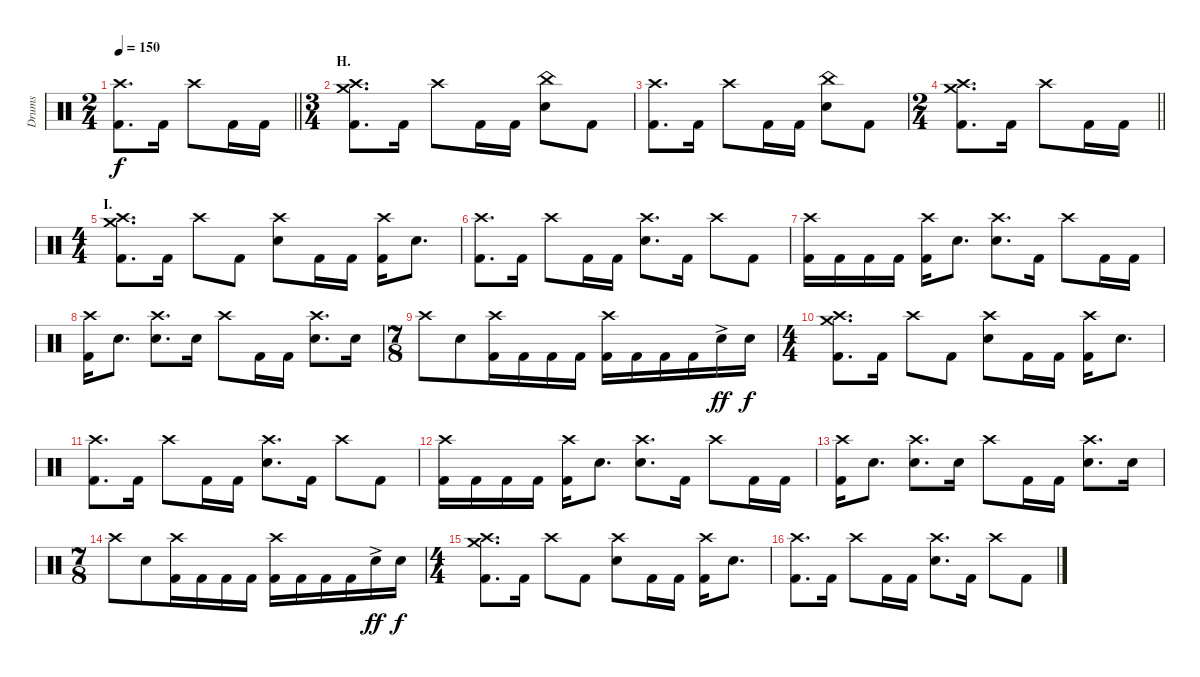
\track ("Drums" "Drums") {instrument percussion}
\staff {score}
\articulation defaults
\ts (2 4)
\tempo 150
\clef neutral
\barLineRight lightlight
\ks c
("Crash high (hit)" "Kick (hit) 2").8{d dy f} "Kick (hit) 2".16 "Crash high (hit)".8 "Kick (hit) 2".16 "Kick (hit) 2".16 |
\ts (3 4)
\section ("" "H.")
("Crash medium (hit)" "Crash high (hit)" "Kick (hit) 2").8{d} "Kick (hit) 2".16 "Crash high (hit)".8 "Kick (hit) 2".16 "Kick (hit) 2".16 ("China (hit)" "Electric Snare (hit)").8 "Kick (hit) 2".8 |
("Crash high (hit)" "Kick (hit) 2").8{d} "Kick (hit) 2".16 "Crash high (hit)".8 "Kick (hit) 2".16 "Kick (hit) 2".16 ("China (hit)" "Electric Snare (hit)").8 "Kick (hit) 2".8 |
\ts (2 4)
\barLineRight lightlight
("Crash medium (hit)" "Crash high (hit)" "Kick (hit) 2").8{d} "Kick (hit) 2".16 "Crash high (hit)".8 "Kick (hit) 2".16 "Kick (hit) 2".16 |
\ts (4 4)
\section ("" "I.")
("Crash medium (hit)" "Crash high (hit)" "Kick (hit) 2").8{d} "Kick (hit) 2".16 "Crash high (hit)".8 "Kick (hit) 2".8 ("Crash high (hit)" "Electric Snare (hit)").8 "Kick (hit) 2".16 "Kick (hit) 2".16 ("Crash high (hit)" "Kick (hit) 2").16 "Electric Snare (hit)".8{d} |
("Crash high (hit)" "Kick (hit) 2").8{d} "Kick (hit) 2".16 "Crash high (hit)".8 "Kick (hit) 2".16 "Kick (hit) 2".16 ("Crash high (hit)" "Electric Snare (hit)").8{d} "Kick (hit) 2".16 "Crash high (hit)".8 "Kick (hit) 2".8 |
("Crash high (hit)" "Kick (hit) 2").16 "Kick (hit) 2".16 "Kick (hit) 2".16 "Kick (hit) 2".16 ("Crash high (hit)" "Kick (hit) 2").16 "Electric Snare (hit)".8{d} ("Crash high (hit)" "Electric Snare (hit)").8{d} "Kick (hit) 2".16 "Crash high (hit)".8 "Kick (hit) 2".16 "Kick (hit) 2".16 |
("Crash high (hit)" "Kick (hit) 2").16 "Electric Snare (hit)".8{d} ("Crash high (hit)" "Electric Snare (hit)").8{d} "Electric Snare (hit)".16 "Crash high (hit)".8 "Kick (hit) 2".16 "Kick (hit) 2".16 ("Crash high (hit)" "Electric Snare (hit)").8{d} "Electric Snare (hit)".16 |
\ts (7 8)
"Crash high (hit)".8 "Electric Snare (hit)".8 ("Crash high (hit)" "Kick (hit) 2").16 "Kick (hit) 2".16 "Kick (hit) 2".16 "Kick (hit) 2".16 ("Crash high (hit)" "Kick (hit) 2").16 "Kick (hit) 2".16 "Kick (hit) 2".16 "Kick (hit) 2".16 "Electric Snare (hit)"{ac}.16{dy ff} "Electric Snare (hit)".16{dy f} |
\ts (4 4)
("Crash medium (hit)" "Crash high (hit)" "Kick (hit) 2").8{d} "Kick (hit) 2".16 "Crash high (hit)".8 "Kick (hit) 2".8 ("Crash high (hit)" "Electric Snare (hit)").8 "Kick (hit) 2".16 "Kick (hit) 2".16 ("Crash high (hit)" "Kick (hit) 2").16 "Electric Snare (hit)".8{d} |
("Crash high (hit)" "Kick (hit) 2").8{d} "Kick (hit) 2".16 "Crash high (hit)".8 "Kick (hit) 2".16 "Kick (hit) 2".16 ("Crash high (hit)" "Electric Snare (hit)").8{d} "Kick (hit) 2".16 "Crash high (hit)".8 "Kick (hit) 2".8 |
("Crash high (hit)" "Kick (hit) 2").16 "Kick (hit) 2".16 "Kick (hit) 2".16 "Kick (hit) 2".16 ("Crash high (hit)" "Kick (hit) 2").16 "Electric Snare (hit)".8{d} ("Crash high (hit)" "Electric Snare (hit)").8{d} "Kick (hit) 2".16 "Crash high (hit)".8 "Kick (hit) 2".16 "Kick (hit) 2".16 |
("Crash high (hit)" "Kick (hit) 2").16 "Electric Snare (hit)".8{d} ("Crash high (hit)" "Electric Snare (hit)").8{d} "Electric Snare (hit)".16 "Crash high (hit)".8 "Kick (hit) 2".16 "Kick (hit) 2".16 ("Crash high (hit)" "Electric Snare (hit)").8{d} "Electric Snare (hit)".16 |
\ts (7 8)
"Crash high (hit)".8 "Electric Snare (hit)".8 ("Crash high (hit)" "Kick (hit) 2").16 "Kick (hit) 2".16 "Kick (hit) 2".16 "Kick (hit) 2".16 ("Crash high (hit)" "Kick (hit) 2").16 "Kick (hit) 2".16 "Kick (hit) 2".16 "Kick (hit) 2".16 "Electric Snare (hit)"{ac}.16{dy ff} "Electric Snare (hit)".16{dy f} |
\ts (4 4)
("Crash medium (hit)" "Crash high (hit)" "Kick (hit) 2").8{d} "Kick (hit) 2".16 "Crash high (hit)".8 "Kick (hit) 2".8 ("Crash high (hit)" "Electric Snare (hit)").8 "Kick (hit) 2".16 "Kick (hit) 2".16 ("Crash high (hit)" "Kick (hit) 2").16 "Electric Snare (hit)".8{d} |
("Crash high (hit)" "Kick (hit) 2").8{d} "Kick (hit) 2".16 "Crash high (hit)".8 "Kick (hit) 2".16 "Kick (hit) 2".16 ("Crash high (hit)" "Electric Snare (hit)").8{d} "Kick (hit) 2".16 "Crash high (hit)".8 "Kick (hit) 2".8
